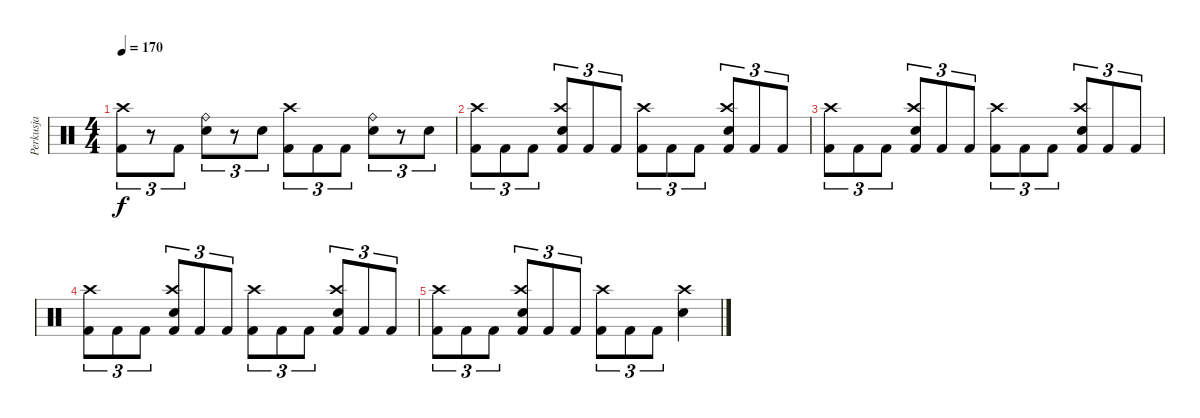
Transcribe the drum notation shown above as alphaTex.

\track ("Perkusja" "Perkusja") {instrument percussion}
\staff {score}
\articulation defaults
\ts (4 4)
\tempo 170
\clef neutral
\ks c
("Kick (hit) 2" "Crash high (hit)").8{tu (3 2) dy f} r.8{tu (3 2)} "Kick (hit) 2".8{tu (3 2)} ("Electric Snare (hit)" "Ride (bell)").8{tu (3 2)} r.8{tu (3 2)} "Electric Snare (hit)".8{tu (3 2)} ("Kick (hit) 2" "Crash high (hit)").8{tu (3 2)} "Kick (hit) 2".8{tu (3 2)} "Kick (hit) 2".8{tu (3 2)} ("Electric Snare (hit)" "Ride (bell)").8{tu (3 2)} r.8{tu (3 2)} "Electric Snare (hit)".8{tu (3 2)} |
("Kick (hit) 2" "Crash high (hit)").8{tu (3 2)} "Kick (hit) 2".8{tu (3 2)} "Kick (hit) 2".8{tu (3 2)} ("Kick (hit) 2" "Electric Snare (hit)" "Crash high (hit)").8{tu (3 2)} "Kick (hit) 2".8{tu (3 2)} "Kick (hit) 2".8{tu (3 2)} ("Kick (hit) 2" "Crash high (hit)").8{tu (3 2)} "Kick (hit) 2".8{tu (3 2)} "Kick (hit) 2".8{tu (3 2)} ("Kick (hit) 2" "Electric Snare (hit)" "Crash high (hit)").8{tu (3 2)} "Kick (hit) 2".8{tu (3 2)} "Kick (hit) 2".8{tu (3 2)} |
("Kick (hit) 2" "Crash high (hit)").8{tu (3 2)} "Kick (hit) 2".8{tu (3 2)} "Kick (hit) 2".8{tu (3 2)} ("Kick (hit) 2" "Electric Snare (hit)" "Crash high (hit)").8{tu (3 2)} "Kick (hit) 2".8{tu (3 2)} "Kick (hit) 2".8{tu (3 2)} ("Kick (hit) 2" "Crash high (hit)").8{tu (3 2)} "Kick (hit) 2".8{tu (3 2)} "Kick (hit) 2".8{tu (3 2)} ("Kick (hit) 2" "Electric Snare (hit)" "Crash high (hit)").8{tu (3 2)} "Kick (hit) 2".8{tu (3 2)} "Kick (hit) 2".8{tu (3 2)} |
("Kick (hit) 2" "Crash high (hit)").8{tu (3 2)} "Kick (hit) 2".8{tu (3 2)} "Kick (hit) 2".8{tu (3 2)} ("Kick (hit) 2" "Electric Snare (hit)" "Crash high (hit)").8{tu (3 2)} "Kick (hit) 2".8{tu (3 2)} "Kick (hit) 2".8{tu (3 2)} ("Kick (hit) 2" "Crash high (hit)").8{tu (3 2)} "Kick (hit) 2".8{tu (3 2)} "Kick (hit) 2".8{tu (3 2)} ("Kick (hit) 2" "Electric Snare (hit)" "Crash high (hit)").8{tu (3 2)} "Kick (hit) 2".8{tu (3 2)} "Kick (hit) 2".8{tu (3 2)} |
("Kick (hit) 2" "Crash high (hit)").8{tu (3 2)} "Kick (hit) 2".8{tu (3 2)} "Kick (hit) 2".8{tu (3 2)} ("Kick (hit) 2" "Electric Snare (hit)" "Crash high (hit)").8{tu (3 2)} "Kick (hit) 2".8{tu (3 2)} "Kick (hit) 2".8{tu (3 2)} ("Kick (hit) 2" "Crash high (hit)").8{tu (3 2)} "Kick (hit) 2".8{tu (3 2)} "Kick (hit) 2".8{tu (3 2)} ("Electric Snare (hit)" "Crash high (hit)").4
